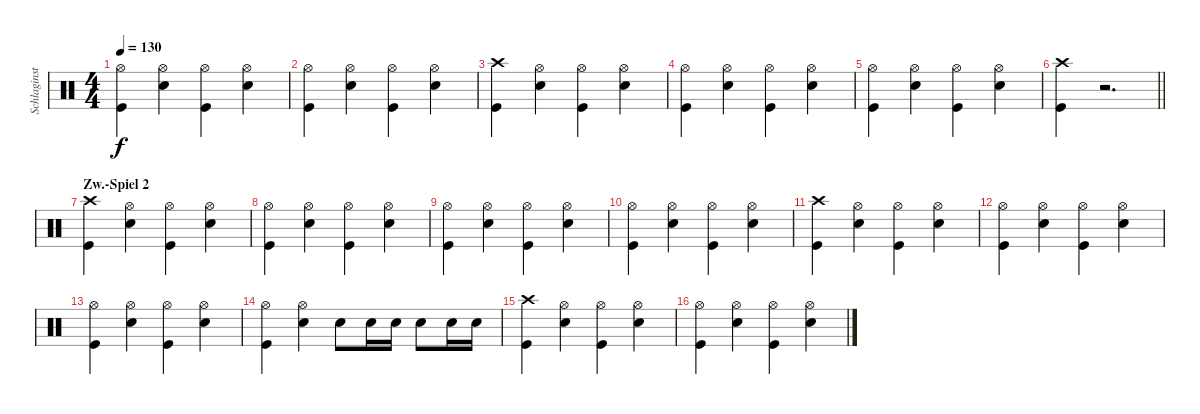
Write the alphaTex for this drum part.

\track ("Schlaginstrumente - Auswahl" "Schlaginst") {instrument percussion}
\staff {score}
\articulation defaults
\ts (4 4)
\tempo 130
\clef neutral
\ks c
("Hi-Hat (open)" "Kick (hit)").4{dy f} ("Hi-Hat (open)" "Snare (hit) 2").4 ("Hi-Hat (open)" "Kick (hit)").4 ("Hi-Hat (open)" "Snare (hit) 2").4 |
("Hi-Hat (open)" "Kick (hit)").4 ("Hi-Hat (open)" "Snare (hit) 2").4 ("Hi-Hat (open)" "Kick (hit)").4 ("Hi-Hat (open)" "Snare (hit) 2").4 |
("Crash high (hit)" "Kick (hit)").4 ("Hi-Hat (open)" "Snare (hit) 2").4 ("Hi-Hat (open)" "Kick (hit)").4 ("Hi-Hat (open)" "Snare (hit) 2").4 |
("Hi-Hat (open)" "Kick (hit)").4 ("Hi-Hat (open)" "Snare (hit) 2").4 ("Hi-Hat (open)" "Kick (hit)").4 ("Hi-Hat (open)" "Snare (hit) 2").4 |
("Hi-Hat (open)" "Kick (hit)").4 ("Hi-Hat (open)" "Snare (hit) 2").4 ("Hi-Hat (open)" "Kick (hit)").4 ("Hi-Hat (open)" "Snare (hit) 2").4 |
\barLineRight lightlight
("Crash high (hit)" "Kick (hit)").4 r.2{d} |
\section ("" "Zw.-Spiel 2")
("Crash high (hit)" "Kick (hit)").4 ("Hi-Hat (open)" "Snare (hit) 2").4 ("Hi-Hat (open)" "Kick (hit)").4 ("Hi-Hat (open)" "Snare (hit) 2").4 |
("Hi-Hat (open)" "Kick (hit)").4 ("Hi-Hat (open)" "Snare (hit) 2").4 ("Hi-Hat (open)" "Kick (hit)").4 ("Hi-Hat (open)" "Snare (hit) 2").4 |
("Hi-Hat (open)" "Kick (hit)").4 ("Hi-Hat (open)" "Snare (hit) 2").4 ("Hi-Hat (open)" "Kick (hit)").4 ("Hi-Hat (open)" "Snare (hit) 2").4 |
("Hi-Hat (open)" "Kick (hit)").4 ("Hi-Hat (open)" "Snare (hit) 2").4 ("Hi-Hat (open)" "Kick (hit)").4 ("Hi-Hat (open)" "Snare (hit) 2").4 |
("Crash high (hit)" "Kick (hit)").4 ("Hi-Hat (open)" "Snare (hit) 2").4 ("Hi-Hat (open)" "Kick (hit)").4 ("Hi-Hat (open)" "Snare (hit) 2").4 |
("Hi-Hat (open)" "Kick (hit)").4 ("Hi-Hat (open)" "Snare (hit) 2").4 ("Hi-Hat (open)" "Kick (hit)").4 ("Hi-Hat (open)" "Snare (hit) 2").4 |
("Hi-Hat (open)" "Kick (hit)").4 ("Hi-Hat (open)" "Snare (hit) 2").4 ("Hi-Hat (open)" "Kick (hit)").4 ("Hi-Hat (open)" "Snare (hit) 2").4 |
("Hi-Hat (open)" "Kick (hit)").4 ("Snare (hit) 2" "Hi-Hat (open)").4 "Snare (hit) 2".8 "Snare (hit) 2".16 "Snare (hit) 2".16 "Snare (hit) 2".8 "Snare (hit) 2".16 "Snare (hit) 2".16 |
("Crash high (hit)" "Kick (hit)").4 ("Hi-Hat (open)" "Snare (hit) 2").4 ("Hi-Hat (open)" "Kick (hit)").4 ("Hi-Hat (open)" "Snare (hit) 2").4 |
("Hi-Hat (open)" "Kick (hit)").4 ("Hi-Hat (open)" "Snare (hit) 2").4 ("Hi-Hat (open)" "Kick (hit)").4 ("Hi-Hat (open)" "Snare (hit) 2").4
